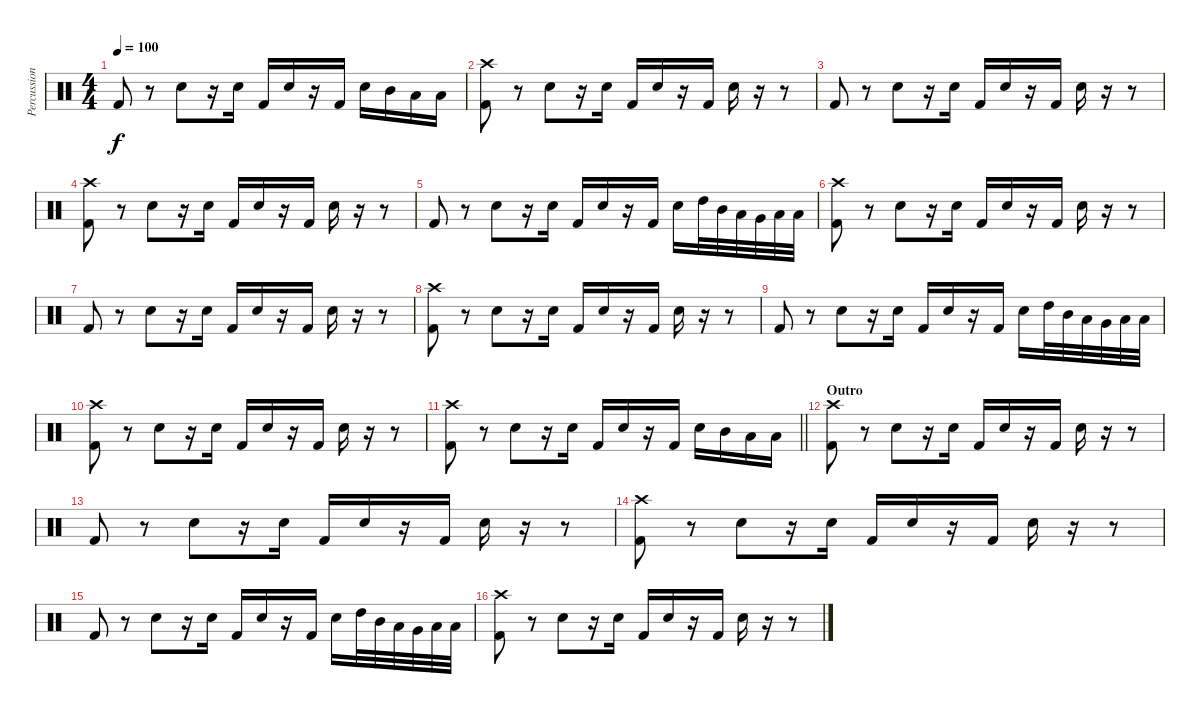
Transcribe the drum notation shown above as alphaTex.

\track ("Percussion" "Percussion") {instrument percussion}
\staff {score}
\articulation defaults
\ts (4 4)
\tempo 100
\clef neutral
\ks c "Kick (hit) 2".8{dy f}
r.8 "Electric Snare (hit)".8 r.16 "Electric Snare (hit)".16 "Kick (hit) 2".16 "Electric Snare (hit)".16 r.16 "Kick (hit) 2".16 "Electric Snare (hit)".16 "Mid Tom (hit)".16 "Low Tom (hit)".16 "Low Floor Tom (hit)".16 |
("Crash high (hit)" "Kick (hit) 2").8 r.8 "Electric Snare (hit)".8 r.16 "Electric Snare (hit)".16 "Kick (hit) 2".16 "Electric Snare (hit)".16 r.16 "Kick (hit) 2".16 "Electric Snare (hit)".16 r.16 r.8 |
"Kick (hit) 2".8 r.8 "Electric Snare (hit)".8 r.16 "Electric Snare (hit)".16 "Kick (hit) 2".16 "Electric Snare (hit)".16 r.16 "Kick (hit) 2".16 "Electric Snare (hit)".16 r.16 r.8 |
("Crash high (hit)" "Kick (hit) 2").8 r.8 "Electric Snare (hit)".8 r.16 "Electric Snare (hit)".16 "Kick (hit) 2".16 "Electric Snare (hit)".16 r.16 "Kick (hit) 2".16 "Electric Snare (hit)".16 r.16 r.8 |
"Kick (hit) 2".8 r.8 "Electric Snare (hit)".8 r.16 "Electric Snare (hit)".16 "Kick (hit) 2".16 "Electric Snare (hit)".16 r.16 "Kick (hit) 2".16 "Electric Snare (hit)".16 "High Tom (hit)".32 "Mid Tom (hit)".32 "Low Tom (hit)".32 "Very Low Tom (hit)".32 "Low Floor Tom (hit)".32 "Low Floor Tom (hit)".32 |
("Crash high (hit)" "Kick (hit) 2").8 r.8 "Electric Snare (hit)".8 r.16 "Electric Snare (hit)".16 "Kick (hit) 2".16 "Electric Snare (hit)".16 r.16 "Kick (hit) 2".16 "Electric Snare (hit)".16 r.16 r.8 |
"Kick (hit) 2".8 r.8 "Electric Snare (hit)".8 r.16 "Electric Snare (hit)".16 "Kick (hit) 2".16 "Electric Snare (hit)".16 r.16 "Kick (hit) 2".16 "Electric Snare (hit)".16 r.16 r.8 |
("Crash high (hit)" "Kick (hit) 2").8 r.8 "Electric Snare (hit)".8 r.16 "Electric Snare (hit)".16 "Kick (hit) 2".16 "Electric Snare (hit)".16 r.16 "Kick (hit) 2".16 "Electric Snare (hit)".16 r.16 r.8 |
"Kick (hit) 2".8 r.8 "Electric Snare (hit)".8 r.16 "Electric Snare (hit)".16 "Kick (hit) 2".16 "Electric Snare (hit)".16 r.16 "Kick (hit) 2".16 "Electric Snare (hit)".16 "High Tom (hit)".32 "Mid Tom (hit)".32 "Low Tom (hit)".32 "Very Low Tom (hit)".32 "Low Floor Tom (hit)".32 "Low Floor Tom (hit)".32 |
("Crash high (hit)" "Kick (hit) 2").8 r.8 "Electric Snare (hit)".8 r.16 "Electric Snare (hit)".16 "Kick (hit) 2".16 "Electric Snare (hit)".16 r.16 "Kick (hit) 2".16 "Electric Snare (hit)".16 r.16 r.8 |
\barLineRight lightlight
("Crash high (hit)" "Kick (hit) 2").8 r.8 "Electric Snare (hit)".8 r.16 "Electric Snare (hit)".16 "Kick (hit) 2".16 "Electric Snare (hit)".16 r.16 "Kick (hit) 2".16 "Electric Snare (hit)".16 "Mid Tom (hit)".16 "Low Tom (hit)".16 "Low Floor Tom (hit)".16 |
\section ("" "Outro")
("Crash high (hit)" "Kick (hit) 2").8 r.8 "Electric Snare (hit)".8 r.16 "Electric Snare (hit)".16 "Kick (hit) 2".16 "Electric Snare (hit)".16 r.16 "Kick (hit) 2".16 "Electric Snare (hit)".16 r.16 r.8 |
"Kick (hit) 2".8 r.8 "Electric Snare (hit)".8 r.16 "Electric Snare (hit)".16 "Kick (hit) 2".16 "Electric Snare (hit)".16 r.16 "Kick (hit) 2".16 "Electric Snare (hit)".16 r.16 r.8 |
("Crash high (hit)" "Kick (hit) 2").8 r.8 "Electric Snare (hit)".8 r.16 "Electric Snare (hit)".16 "Kick (hit) 2".16 "Electric Snare (hit)".16 r.16 "Kick (hit) 2".16 "Electric Snare (hit)".16 r.16 r.8 |
"Kick (hit) 2".8 r.8 "Electric Snare (hit)".8 r.16 "Electric Snare (hit)".16 "Kick (hit) 2".16 "Electric Snare (hit)".16 r.16 "Kick (hit) 2".16 "Electric Snare (hit)".16 "High Tom (hit)".32 "Mid Tom (hit)".32 "Low Tom (hit)".32 "Very Low Tom (hit)".32 "Low Floor Tom (hit)".32 "Low Floor Tom (hit)".32 |
("Crash high (hit)" "Kick (hit) 2").8 r.8 "Electric Snare (hit)".8 r.16 "Electric Snare (hit)".16 "Kick (hit) 2".16 "Electric Snare (hit)".16 r.16 "Kick (hit) 2".16 "Electric Snare (hit)".16 r.16 r.8
